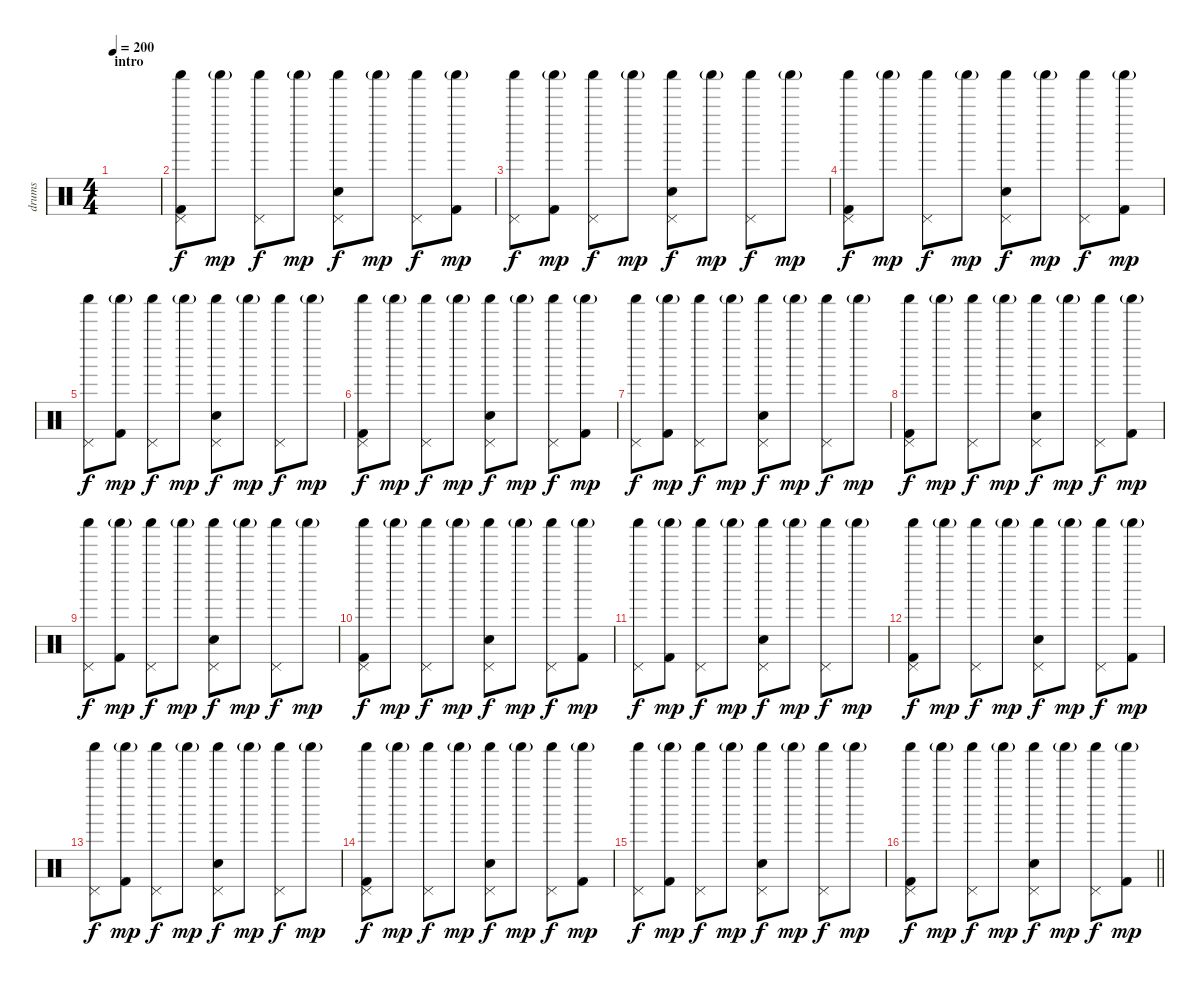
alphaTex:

\track ("drums" "drums") {instrument percussion}
\staff {score}
\articulation defaults
\ts (4 4)
\section ("" "intro")
\tempo 200
\clef neutral
\ks c
|
("Kick (hit) 2" "Shaker (hit)" "Pedal Hi-Hat (hit)").8 "Shaker (hit)"{g}.8{dy mp} ("Shaker (hit)" "Pedal Hi-Hat (hit)").8{dy f} "Shaker (hit)"{g}.8{dy mp} ("Electric Snare (hit)" "Shaker (hit)" "Pedal Hi-Hat (hit)").8{dy f} "Shaker (hit)"{g}.8{dy mp} ("Shaker (hit)" "Pedal Hi-Hat (hit)").8{dy f} ("Kick (hit) 2" "Shaker (hit)"{g}).8{dy mp} |
("Shaker (hit)" "Pedal Hi-Hat (hit)").8{dy f} ("Kick (hit) 2" "Shaker (hit)"{g}).8{dy mp} ("Shaker (hit)" "Pedal Hi-Hat (hit)").8{dy f} "Shaker (hit)"{g}.8{dy mp} ("Electric Snare (hit)" "Shaker (hit)" "Pedal Hi-Hat (hit)").8{dy f} "Shaker (hit)"{g}.8{dy mp} ("Shaker (hit)" "Pedal Hi-Hat (hit)").8{dy f} "Shaker (hit)"{g}.8{dy mp} |
("Kick (hit) 2" "Shaker (hit)" "Pedal Hi-Hat (hit)").8{dy f} "Shaker (hit)"{g}.8{dy mp} ("Shaker (hit)" "Pedal Hi-Hat (hit)").8{dy f} "Shaker (hit)"{g}.8{dy mp} ("Electric Snare (hit)" "Shaker (hit)" "Pedal Hi-Hat (hit)").8{dy f} "Shaker (hit)"{g}.8{dy mp} ("Shaker (hit)" "Pedal Hi-Hat (hit)").8{dy f} ("Kick (hit) 2" "Shaker (hit)"{g}).8{dy mp} |
("Shaker (hit)" "Pedal Hi-Hat (hit)").8{dy f} ("Kick (hit) 2" "Shaker (hit)"{g}).8{dy mp} ("Shaker (hit)" "Pedal Hi-Hat (hit)").8{dy f} "Shaker (hit)"{g}.8{dy mp} ("Electric Snare (hit)" "Shaker (hit)" "Pedal Hi-Hat (hit)").8{dy f} "Shaker (hit)"{g}.8{dy mp} ("Shaker (hit)" "Pedal Hi-Hat (hit)").8{dy f} "Shaker (hit)"{g}.8{dy mp} |
("Kick (hit) 2" "Shaker (hit)" "Pedal Hi-Hat (hit)").8{dy f} "Shaker (hit)"{g}.8{dy mp} ("Shaker (hit)" "Pedal Hi-Hat (hit)").8{dy f} "Shaker (hit)"{g}.8{dy mp} ("Electric Snare (hit)" "Shaker (hit)" "Pedal Hi-Hat (hit)").8{dy f} "Shaker (hit)"{g}.8{dy mp} ("Shaker (hit)" "Pedal Hi-Hat (hit)").8{dy f} ("Kick (hit) 2" "Shaker (hit)"{g}).8{dy mp} |
("Shaker (hit)" "Pedal Hi-Hat (hit)").8{dy f} ("Kick (hit) 2" "Shaker (hit)"{g}).8{dy mp} ("Shaker (hit)" "Pedal Hi-Hat (hit)").8{dy f} "Shaker (hit)"{g}.8{dy mp} ("Electric Snare (hit)" "Shaker (hit)" "Pedal Hi-Hat (hit)").8{dy f} "Shaker (hit)"{g}.8{dy mp} ("Shaker (hit)" "Pedal Hi-Hat (hit)").8{dy f} "Shaker (hit)"{g}.8{dy mp} |
("Kick (hit) 2" "Shaker (hit)" "Pedal Hi-Hat (hit)").8{dy f} "Shaker (hit)"{g}.8{dy mp} ("Shaker (hit)" "Pedal Hi-Hat (hit)").8{dy f} "Shaker (hit)"{g}.8{dy mp} ("Electric Snare (hit)" "Shaker (hit)" "Pedal Hi-Hat (hit)").8{dy f} "Shaker (hit)"{g}.8{dy mp} ("Shaker (hit)" "Pedal Hi-Hat (hit)").8{dy f} ("Kick (hit) 2" "Shaker (hit)"{g}).8{dy mp} |
("Shaker (hit)" "Pedal Hi-Hat (hit)").8{dy f} ("Kick (hit) 2" "Shaker (hit)"{g}).8{dy mp} ("Shaker (hit)" "Pedal Hi-Hat (hit)").8{dy f} "Shaker (hit)"{g}.8{dy mp} ("Electric Snare (hit)" "Shaker (hit)" "Pedal Hi-Hat (hit)").8{dy f} "Shaker (hit)"{g}.8{dy mp} ("Shaker (hit)" "Pedal Hi-Hat (hit)").8{dy f} "Shaker (hit)"{g}.8{dy mp} |
("Kick (hit) 2" "Shaker (hit)" "Pedal Hi-Hat (hit)").8{dy f} "Shaker (hit)"{g}.8{dy mp} ("Shaker (hit)" "Pedal Hi-Hat (hit)").8{dy f} "Shaker (hit)"{g}.8{dy mp} ("Electric Snare (hit)" "Shaker (hit)" "Pedal Hi-Hat (hit)").8{dy f} "Shaker (hit)"{g}.8{dy mp} ("Shaker (hit)" "Pedal Hi-Hat (hit)").8{dy f} ("Kick (hit) 2" "Shaker (hit)"{g}).8{dy mp} |
("Shaker (hit)" "Pedal Hi-Hat (hit)").8{dy f} ("Kick (hit) 2" "Shaker (hit)"{g}).8{dy mp} ("Shaker (hit)" "Pedal Hi-Hat (hit)").8{dy f} "Shaker (hit)"{g}.8{dy mp} ("Electric Snare (hit)" "Shaker (hit)" "Pedal Hi-Hat (hit)").8{dy f} "Shaker (hit)"{g}.8{dy mp} ("Shaker (hit)" "Pedal Hi-Hat (hit)").8{dy f} "Shaker (hit)"{g}.8{dy mp} |
("Kick (hit) 2" "Shaker (hit)" "Pedal Hi-Hat (hit)").8{dy f} "Shaker (hit)"{g}.8{dy mp} ("Shaker (hit)" "Pedal Hi-Hat (hit)").8{dy f} "Shaker (hit)"{g}.8{dy mp} ("Electric Snare (hit)" "Shaker (hit)" "Pedal Hi-Hat (hit)").8{dy f} "Shaker (hit)"{g}.8{dy mp} ("Shaker (hit)" "Pedal Hi-Hat (hit)").8{dy f} ("Kick (hit) 2" "Shaker (hit)"{g}).8{dy mp} |
("Shaker (hit)" "Pedal Hi-Hat (hit)").8{dy f} ("Kick (hit) 2" "Shaker (hit)"{g}).8{dy mp} ("Shaker (hit)" "Pedal Hi-Hat (hit)").8{dy f} "Shaker (hit)"{g}.8{dy mp} ("Electric Snare (hit)" "Shaker (hit)" "Pedal Hi-Hat (hit)").8{dy f} "Shaker (hit)"{g}.8{dy mp} ("Shaker (hit)" "Pedal Hi-Hat (hit)").8{dy f} "Shaker (hit)"{g}.8{dy mp} |
("Kick (hit) 2" "Shaker (hit)" "Pedal Hi-Hat (hit)").8{dy f} "Shaker (hit)"{g}.8{dy mp} ("Shaker (hit)" "Pedal Hi-Hat (hit)").8{dy f} "Shaker (hit)"{g}.8{dy mp} ("Electric Snare (hit)" "Shaker (hit)" "Pedal Hi-Hat (hit)").8{dy f} "Shaker (hit)"{g}.8{dy mp} ("Shaker (hit)" "Pedal Hi-Hat (hit)").8{dy f} ("Kick (hit) 2" "Shaker (hit)"{g}).8{dy mp} |
("Shaker (hit)" "Pedal Hi-Hat (hit)").8{dy f} ("Kick (hit) 2" "Shaker (hit)"{g}).8{dy mp} ("Shaker (hit)" "Pedal Hi-Hat (hit)").8{dy f} "Shaker (hit)"{g}.8{dy mp} ("Electric Snare (hit)" "Shaker (hit)" "Pedal Hi-Hat (hit)").8{dy f} "Shaker (hit)"{g}.8{dy mp} ("Shaker (hit)" "Pedal Hi-Hat (hit)").8{dy f} "Shaker (hit)"{g}.8{dy mp} |
\barLineRight lightlight
("Kick (hit) 2" "Shaker (hit)" "Pedal Hi-Hat (hit)").8{dy f} "Shaker (hit)"{g}.8{dy mp} ("Shaker (hit)" "Pedal Hi-Hat (hit)").8{dy f} "Shaker (hit)"{g}.8{dy mp} ("Electric Snare (hit)" "Shaker (hit)" "Pedal Hi-Hat (hit)").8{dy f} "Shaker (hit)"{g}.8{dy mp} ("Shaker (hit)" "Pedal Hi-Hat (hit)").8{dy f} ("Kick (hit) 2" "Shaker (hit)"{g}).8{dy mp}
